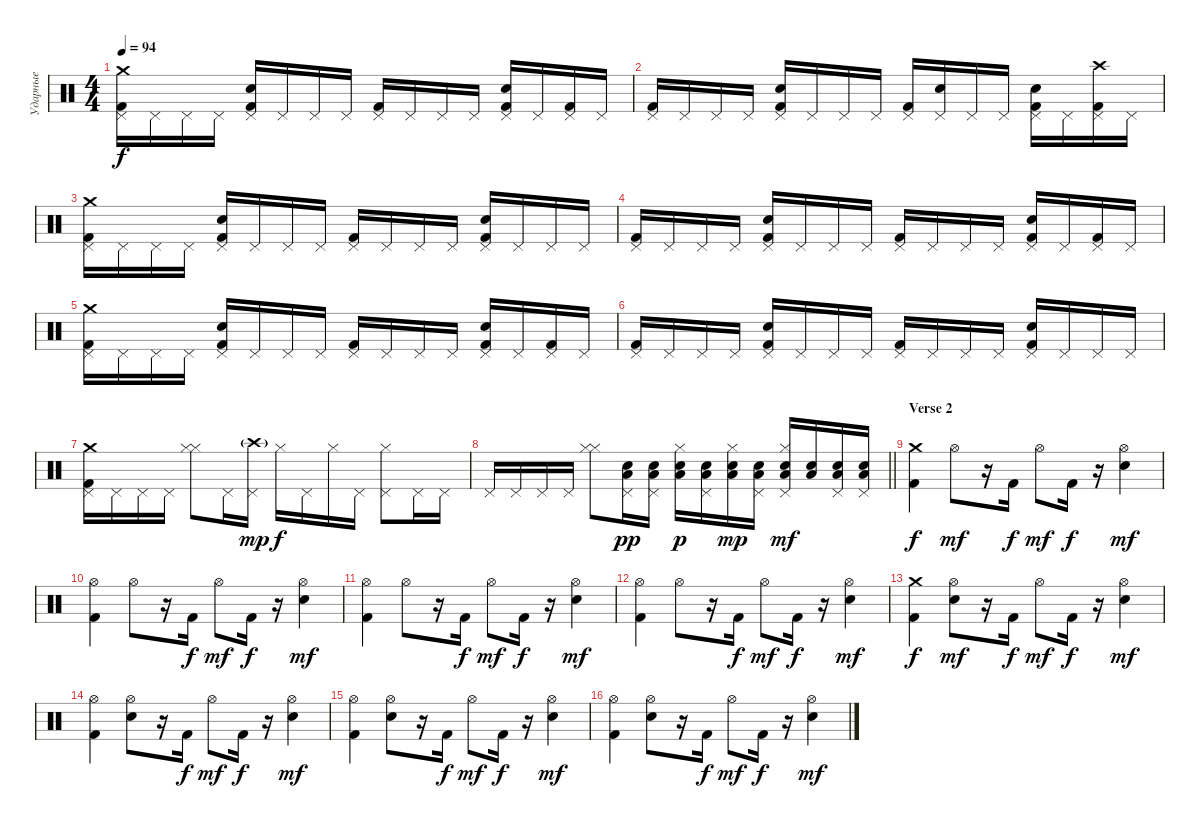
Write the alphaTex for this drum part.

\track ("Ударные" "Ударные") {instrument percussion}
\staff {score}
\articulation defaults
\ts (4 4)
\tempo 94
\clef neutral
\ks c
("Crash medium (hit)" "Pedal Hi-Hat (hit)" "Kick (hit) 2").16{dy f} "Pedal Hi-Hat (hit)".16 "Pedal Hi-Hat (hit)".16 "Pedal Hi-Hat (hit)".16 ("Pedal Hi-Hat (hit)" "Snare (hit) 2" "Kick (hit) 2").16 "Pedal Hi-Hat (hit)".16 "Pedal Hi-Hat (hit)".16 "Pedal Hi-Hat (hit)".16 ("Pedal Hi-Hat (hit)" "Kick (hit) 2").16 "Pedal Hi-Hat (hit)".16 "Pedal Hi-Hat (hit)".16 "Pedal Hi-Hat (hit)".16 ("Pedal Hi-Hat (hit)" "Snare (hit) 2" "Kick (hit) 2").16 "Pedal Hi-Hat (hit)".16 ("Pedal Hi-Hat (hit)" "Kick (hit) 2").16 "Pedal Hi-Hat (hit)".16 |
("Pedal Hi-Hat (hit)" "Kick (hit) 2").16 "Pedal Hi-Hat (hit)".16 "Pedal Hi-Hat (hit)".16 "Pedal Hi-Hat (hit)".16 ("Pedal Hi-Hat (hit)" "Snare (hit) 2" "Kick (hit) 2").16 "Pedal Hi-Hat (hit)".16 "Pedal Hi-Hat (hit)".16 "Pedal Hi-Hat (hit)".16 ("Pedal Hi-Hat (hit)" "Kick (hit) 2").16 ("Pedal Hi-Hat (hit)" "Snare (hit) 2").16 "Pedal Hi-Hat (hit)".16 "Pedal Hi-Hat (hit)".16 ("Pedal Hi-Hat (hit)" "Snare (hit) 2" "Kick (hit) 2").16 "Pedal Hi-Hat (hit)".16 ("Crash high (hit)" "Pedal Hi-Hat (hit)" "Kick (hit) 2").16 "Pedal Hi-Hat (hit)".16 |
("Crash medium (hit)" "Pedal Hi-Hat (hit)" "Kick (hit) 2").16 "Pedal Hi-Hat (hit)".16 "Pedal Hi-Hat (hit)".16 "Pedal Hi-Hat (hit)".16 ("Pedal Hi-Hat (hit)" "Snare (hit) 2" "Kick (hit) 2").16 "Pedal Hi-Hat (hit)".16 "Pedal Hi-Hat (hit)".16 "Pedal Hi-Hat (hit)".16 ("Pedal Hi-Hat (hit)" "Kick (hit) 2").16 "Pedal Hi-Hat (hit)".16 "Pedal Hi-Hat (hit)".16 "Pedal Hi-Hat (hit)".16 ("Pedal Hi-Hat (hit)" "Snare (hit) 2" "Kick (hit) 2").16 "Pedal Hi-Hat (hit)".16 "Pedal Hi-Hat (hit)".16 "Pedal Hi-Hat (hit)".16 |
("Pedal Hi-Hat (hit)" "Kick (hit) 2").16 "Pedal Hi-Hat (hit)".16 "Pedal Hi-Hat (hit)".16 "Pedal Hi-Hat (hit)".16 ("Pedal Hi-Hat (hit)" "Snare (hit) 2" "Kick (hit) 2").16 "Pedal Hi-Hat (hit)".16 "Pedal Hi-Hat (hit)".16 "Pedal Hi-Hat (hit)".16 ("Pedal Hi-Hat (hit)" "Kick (hit) 2").16 "Pedal Hi-Hat (hit)".16 "Pedal Hi-Hat (hit)".16 "Pedal Hi-Hat (hit)".16 ("Pedal Hi-Hat (hit)" "Snare (hit) 2" "Kick (hit) 2").16 "Pedal Hi-Hat (hit)".16 ("Pedal Hi-Hat (hit)" "Kick (hit) 2").16 "Pedal Hi-Hat (hit)".16 |
("Crash medium (hit)" "Pedal Hi-Hat (hit)" "Kick (hit) 2").16 "Pedal Hi-Hat (hit)".16 "Pedal Hi-Hat (hit)".16 "Pedal Hi-Hat (hit)".16 ("Pedal Hi-Hat (hit)" "Snare (hit) 2" "Kick (hit) 2").16 "Pedal Hi-Hat (hit)".16 "Pedal Hi-Hat (hit)".16 "Pedal Hi-Hat (hit)".16 ("Pedal Hi-Hat (hit)" "Kick (hit) 2").16 "Pedal Hi-Hat (hit)".16 "Pedal Hi-Hat (hit)".16 "Pedal Hi-Hat (hit)".16 ("Pedal Hi-Hat (hit)" "Snare (hit) 2" "Kick (hit) 2").16 "Pedal Hi-Hat (hit)".16 ("Pedal Hi-Hat (hit)" "Kick (hit) 2").16 "Pedal Hi-Hat (hit)".16 |
("Pedal Hi-Hat (hit)" "Kick (hit) 2").16 "Pedal Hi-Hat (hit)".16 "Pedal Hi-Hat (hit)".16 "Pedal Hi-Hat (hit)".16 ("Pedal Hi-Hat (hit)" "Snare (hit) 2" "Kick (hit) 2").16 "Pedal Hi-Hat (hit)".16 "Pedal Hi-Hat (hit)".16 "Pedal Hi-Hat (hit)".16 ("Pedal Hi-Hat (hit)" "Kick (hit) 2").16 "Pedal Hi-Hat (hit)".16 "Pedal Hi-Hat (hit)".16 "Pedal Hi-Hat (hit)".16 ("Pedal Hi-Hat (hit)" "Snare (hit) 2" "Kick (hit) 2").16 "Pedal Hi-Hat (hit)".16 "Pedal Hi-Hat (hit)".16 "Pedal Hi-Hat (hit)".16 |
("Crash medium (hit)" "Pedal Hi-Hat (hit)" "Kick (hit) 2").16 "Pedal Hi-Hat (hit)".16 "Pedal Hi-Hat (hit)".16 "Pedal Hi-Hat (hit)".16 ("Hi-Hat (closed)" "Hi-Hat (closed)").8 "Pedal Hi-Hat (hit)".16 ("Crash high (hit)"{g} "Pedal Hi-Hat (hit)").16{dy mp} "Hi-Hat (closed)".16{dy f} "Pedal Hi-Hat (hit)".16 "Hi-Hat (closed)".16 "Pedal Hi-Hat (hit)".16 ("Pedal Hi-Hat (hit)" "Hi-Hat (closed)").8 "Pedal Hi-Hat (hit)".16 "Pedal Hi-Hat (hit)".16 |
\barLineRight lightlight "Pedal Hi-Hat (hit)".16 "Pedal Hi-Hat (hit)".16 "Pedal Hi-Hat (hit)".16 "Pedal Hi-Hat (hit)".16
("Hi-Hat (closed)" "Hi-Hat (closed)").8 ("Low Floor Tom (hit)" "Electric Snare (hit)" "Pedal Hi-Hat (hit)").16{dy pp} ("Low Floor Tom (hit)" "Electric Snare (hit)" "Pedal Hi-Hat (hit)").16 ("Low Floor Tom (hit)" "Electric Snare (hit)" "Hi-Hat (closed)").16{dy p} ("Low Floor Tom (hit)" "Electric Snare (hit)" "Pedal Hi-Hat (hit)").16 ("Low Floor Tom (hit)" "Electric Snare (hit)" "Hi-Hat (closed)").16{dy mp} ("Low Floor Tom (hit)" "Electric Snare (hit)" "Pedal Hi-Hat (hit)").16 ("Low Floor Tom (hit)" "Electric Snare (hit)" "Pedal Hi-Hat (hit)" "Hi-Hat (closed)").16{dy mf} ("Low Floor Tom (hit)" "Electric Snare (hit)").16 ("Low Floor Tom (hit)" "Electric Snare (hit)" "Pedal Hi-Hat (hit)").16 ("Low Floor Tom (hit)" "Electric Snare (hit)" "Pedal Hi-Hat (hit)").16 |
\section ("" "Verse 2")
("Crash medium (hit)" "Kick (hit) 2").4{dy f} "Hi-Hat (open)".8{dy mf} r.16 "Kick (hit) 2".16{dy f} "Hi-Hat (open)".8{dy mf} "Kick (hit) 2".16{dy f} r.16 ("Hi-Hat (open)" "Snare (hit) 2").4{dy mf} |
("Hi-Hat (open)" "Kick (hit) 2").4 "Hi-Hat (open)".8 r.16 "Kick (hit) 2".16{dy f} "Hi-Hat (open)".8{dy mf} "Kick (hit) 2".16{dy f} r.16 ("Hi-Hat (open)" "Snare (hit) 2").4{dy mf} |
("Hi-Hat (open)" "Kick (hit) 2").4 "Hi-Hat (open)".8 r.16 "Kick (hit) 2".16{dy f} "Hi-Hat (open)".8{dy mf} "Kick (hit) 2".16{dy f} r.16 ("Hi-Hat (open)" "Snare (hit) 2").4{dy mf} |
("Hi-Hat (open)" "Kick (hit) 2").4 "Hi-Hat (open)".8 r.16 "Kick (hit) 2".16{dy f} "Hi-Hat (open)".8{dy mf} "Kick (hit) 2".16{dy f} r.16 ("Hi-Hat (open)" "Snare (hit) 2").4{dy mf} |
("Crash medium (hit)" "Kick (hit) 2").4{dy f} ("Hi-Hat (open)" "Snare (hit) 2").8{dy mf} r.16 "Kick (hit) 2".16{dy f} "Hi-Hat (open)".8{dy mf} "Kick (hit) 2".16{dy f} r.16 ("Hi-Hat (open)" "Snare (hit) 2").4{dy mf} |
("Hi-Hat (open)" "Kick (hit) 2").4 ("Hi-Hat (open)" "Snare (hit) 2").8 r.16 "Kick (hit) 2".16{dy f} "Hi-Hat (open)".8{dy mf} "Kick (hit) 2".16{dy f} r.16 ("Hi-Hat (open)" "Snare (hit) 2").4{dy mf} |
("Hi-Hat (open)" "Kick (hit) 2").4 ("Hi-Hat (open)" "Snare (hit) 2").8 r.16 "Kick (hit) 2".16{dy f} "Hi-Hat (open)".8{dy mf} "Kick (hit) 2".16{dy f} r.16 ("Hi-Hat (open)" "Snare (hit) 2").4{dy mf} |
("Hi-Hat (open)" "Kick (hit) 2").4 ("Hi-Hat (open)" "Snare (hit) 2").8 r.16 "Kick (hit) 2".16{dy f} "Hi-Hat (open)".8{dy mf} "Kick (hit) 2".16{dy f} r.16 ("Hi-Hat (open)" "Snare (hit) 2").4{dy mf}
